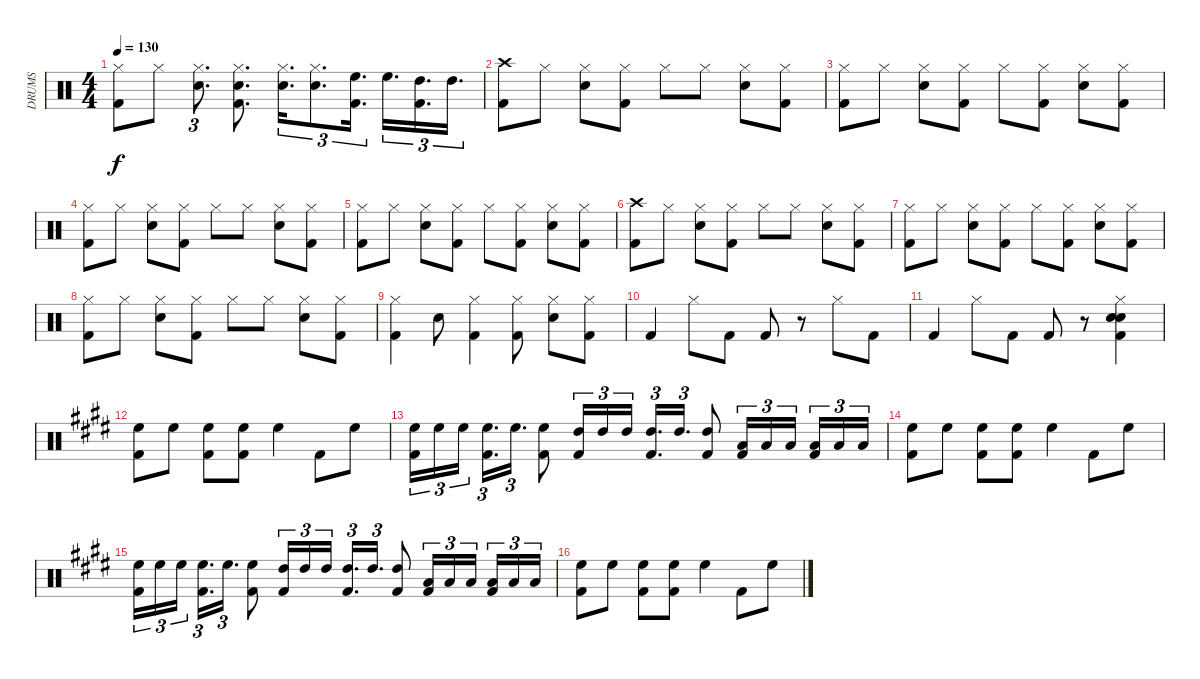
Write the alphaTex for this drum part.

\track ("DRUMS" "DRUMS") {instrument percussion}
\staff {score}
\articulation defaults
\ts (4 4)
\tempo 130
\clef neutral
\ks c
("Hi-Hat (closed)" "Kick (hit) 2").8{dy f} "Hi-Hat (closed)".8 ("Hi-Hat (closed)" "Snare (hit) 2").8{d tu (3 2)} ("Hi-Hat (closed)" "Snare (hit) 2" "Kick (hit) 2").8{d} ("Hi-Hat (closed)" "Snare (hit) 2").16{d tu (3 2)} ("Hi-Hat (closed)" "Snare (hit) 2").8{d tu (3 2)} ("High Floor Tom (hit)" "Kick (hit) 2").16{d tu (3 2) balance 0} "High Floor Tom (hit)".16{d tu (3 2)} ("High Tom (hit)" "Kick (hit) 2").16{d tu (3 2) balance 16} "High Tom (hit)".16{d tu (3 2)} |
("Crash high (hit)" "Kick (hit) 2").8{balance 8} "Hi-Hat (closed)".8 ("Hi-Hat (closed)" "Snare (hit) 2").8 ("Hi-Hat (closed)" "Kick (hit) 2").8 "Hi-Hat (closed)".8 "Hi-Hat (closed)".8 ("Hi-Hat (closed)" "Snare (hit) 2").8 ("Hi-Hat (closed)" "Kick (hit) 2").8 |
("Hi-Hat (closed)" "Kick (hit) 2").8 "Hi-Hat (closed)".8 ("Hi-Hat (closed)" "Snare (hit) 2").8 ("Hi-Hat (closed)" "Kick (hit) 2").8 "Hi-Hat (closed)".8 ("Hi-Hat (closed)" "Kick (hit) 2").8 ("Hi-Hat (closed)" "Snare (hit) 2").8 ("Hi-Hat (closed)" "Kick (hit) 2").8 |
("Hi-Hat (closed)" "Kick (hit) 2").8 "Hi-Hat (closed)".8 ("Hi-Hat (closed)" "Snare (hit) 2").8 ("Hi-Hat (closed)" "Kick (hit) 2").8 "Hi-Hat (closed)".8 "Hi-Hat (closed)".8 ("Hi-Hat (closed)" "Snare (hit) 2").8 ("Hi-Hat (closed)" "Kick (hit) 2").8 |
("Hi-Hat (closed)" "Kick (hit) 2").8 "Hi-Hat (closed)".8 ("Hi-Hat (closed)" "Snare (hit) 2").8 ("Hi-Hat (closed)" "Kick (hit) 2").8 "Hi-Hat (closed)".8 ("Hi-Hat (closed)" "Kick (hit) 2").8 ("Hi-Hat (closed)" "Snare (hit) 2").8 ("Hi-Hat (closed)" "Kick (hit) 2").8 |
("Crash high (hit)" "Kick (hit) 2").8 "Hi-Hat (closed)".8 ("Hi-Hat (closed)" "Snare (hit) 2").8 ("Hi-Hat (closed)" "Kick (hit) 2").8 "Hi-Hat (closed)".8 "Hi-Hat (closed)".8 ("Hi-Hat (closed)" "Snare (hit) 2").8 ("Hi-Hat (closed)" "Kick (hit) 2").8 |
("Hi-Hat (closed)" "Kick (hit) 2").8 "Hi-Hat (closed)".8 ("Hi-Hat (closed)" "Snare (hit) 2").8 ("Hi-Hat (closed)" "Kick (hit) 2").8 "Hi-Hat (closed)".8 ("Hi-Hat (closed)" "Kick (hit) 2").8 ("Hi-Hat (closed)" "Snare (hit) 2").8 ("Hi-Hat (closed)" "Kick (hit) 2").8 |
("Hi-Hat (closed)" "Kick (hit) 2").8 "Hi-Hat (closed)".8 ("Hi-Hat (closed)" "Snare (hit) 2").8 ("Hi-Hat (closed)" "Kick (hit) 2").8 "Hi-Hat (closed)".8 "Hi-Hat (closed)".8 ("Hi-Hat (closed)" "Snare (hit) 2").8 ("Hi-Hat (closed)" "Kick (hit) 2").8 |
("Hi-Hat (closed)" "Kick (hit) 2").4 "Snare (hit) 2".8 ("Hi-Hat (closed)" "Kick (hit) 2").4 ("Hi-Hat (closed)" "Kick (hit) 2").8 ("Hi-Hat (closed)" "Snare (hit) 2").8 ("Hi-Hat (closed)" "Kick (hit) 2").8 |
"Kick (hit) 2".4 "Hi-Hat (closed)".8 "Kick (hit) 2".8 "Kick (hit) 2".8 r.8 "Hi-Hat (closed)".8 "Kick (hit) 2".8 |
"Kick (hit) 2".4 "Hi-Hat (closed)".8 "Kick (hit) 2".8 "Kick (hit) 2".8 r.8 ("Hi-Hat (closed)" "Snare (hit) 2" "Snare (hit) 2" "Kick (hit) 2").4 |
\ks c#minor
("High Floor Tom (hit)" "Kick (hit) 2").8 "High Floor Tom (hit)".8 ("High Floor Tom (hit)" "Kick (hit) 2").8 ("High Floor Tom (hit)" "Kick (hit) 2").8 "High Floor Tom (hit)".4 "Kick (hit) 2".8 "High Floor Tom (hit)".8 |
\ks e
("High Floor Tom (hit)" "Kick (hit) 2").16{tu (3 2) balance 1} "High Floor Tom (hit)".16{tu (3 2)} "High Floor Tom (hit)".16{tu (3 2) beam splitsecondary} ("High Floor Tom (hit)" "Kick (hit) 2").16{d tu (3 2)} "High Floor Tom (hit)".16{d tu (3 2)} ("High Floor Tom (hit)" "Kick (hit) 2").8 ("High Tom (hit)" "Kick (hit) 2").16{tu (3 2) balance 8} "High Tom (hit)".16{tu (3 2)} "High Tom (hit)".16{tu (3 2)} ("High Tom (hit)" "Kick (hit) 2").16{d tu (3 2)} "High Tom (hit)".16{d tu (3 2)} ("High Tom (hit)" "Kick (hit) 2").8 ("Low Tom (hit)" "Kick (hit) 2").16{tu (3 2) balance 16} "Low Tom (hit)".16{tu (3 2)} "Low Tom (hit)".16{tu (3 2) beam splitsecondary} ("Low Tom (hit)" "Kick (hit) 2").16{tu (3 2)} "Low Tom (hit)".16{tu (3 2)} "Low Tom (hit)".16{tu (3 2)} |
\ks c#minor
("High Floor Tom (hit)" "Kick (hit) 2").8{balance 8} "High Floor Tom (hit)".8 ("High Floor Tom (hit)" "Kick (hit) 2").8 ("High Floor Tom (hit)" "Kick (hit) 2").8 "High Floor Tom (hit)".4 "Kick (hit) 2".8 "High Floor Tom (hit)".8 |
\ks e
("High Floor Tom (hit)" "Kick (hit) 2").16{tu (3 2) balance 1} "High Floor Tom (hit)".16{tu (3 2)} "High Floor Tom (hit)".16{tu (3 2) beam splitsecondary} ("High Floor Tom (hit)" "Kick (hit) 2").16{d tu (3 2)} "High Floor Tom (hit)".16{d tu (3 2)} ("High Floor Tom (hit)" "Kick (hit) 2").8 ("High Tom (hit)" "Kick (hit) 2").16{tu (3 2) balance 8} "High Tom (hit)".16{tu (3 2)} "High Tom (hit)".16{tu (3 2)} ("High Tom (hit)" "Kick (hit) 2").16{d tu (3 2)} "High Tom (hit)".16{d tu (3 2)} ("High Tom (hit)" "Kick (hit) 2").8 ("Low Tom (hit)" "Kick (hit) 2").16{tu (3 2) balance 16} "Low Tom (hit)".16{tu (3 2)} "Low Tom (hit)".16{tu (3 2) beam splitsecondary} ("Low Tom (hit)" "Kick (hit) 2").16{tu (3 2)} "Low Tom (hit)".16{tu (3 2)} "Low Tom (hit)".16{tu (3 2)} |
\ks c#minor
("High Floor Tom (hit)" "Kick (hit) 2").8{balance 8} "High Floor Tom (hit)".8 ("High Floor Tom (hit)" "Kick (hit) 2").8 ("High Floor Tom (hit)" "Kick (hit) 2").8 "High Floor Tom (hit)".4 "Kick (hit) 2".8 "High Floor Tom (hit)".8
